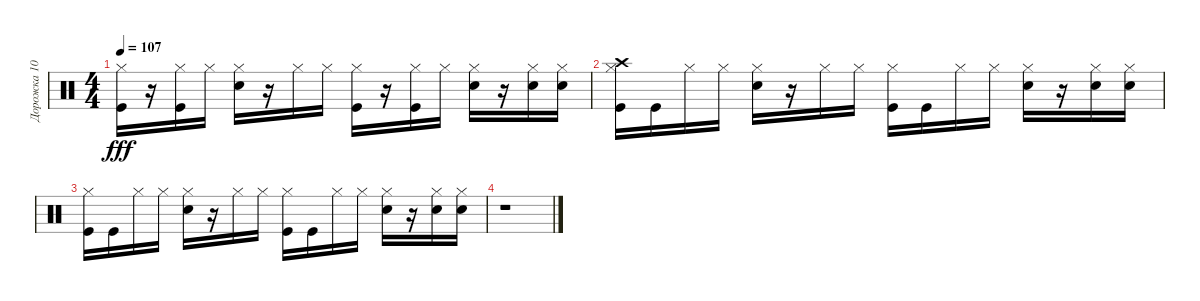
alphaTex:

\track ("Дорожка 10" "Дорожка 10") {instrument percussion}
\staff {score}
\articulation defaults
\ts (4 4)
\tempo 107
\clef neutral
\ks c
("Hi-Hat (closed)" "Kick (hit)").16{dy fff} r.16 ("Kick (hit)" "Hi-Hat (closed)").16 "Hi-Hat (closed)".16 ("Hi-Hat (closed)" "Electric Snare (hit)").16 r.16 "Hi-Hat (closed)".16 "Hi-Hat (closed)".16 ("Kick (hit)" "Hi-Hat (closed)").16 r.16 ("Hi-Hat (closed)" "Kick (hit)").16 "Hi-Hat (closed)".16 ("Hi-Hat (closed)" "Electric Snare (hit)").16 r.16 ("Electric Snare (hit)" "Hi-Hat (closed)").16 ("Hi-Hat (closed)" "Electric Snare (hit)").16 |
("Hi-Hat (closed)" "Kick (hit)" "Crash high (hit)").16 "Kick (hit)".16 "Hi-Hat (closed)".16 "Hi-Hat (closed)".16 ("Hi-Hat (closed)" "Electric Snare (hit)").16 r.16 "Hi-Hat (closed)".16 "Hi-Hat (closed)".16 ("Hi-Hat (closed)" "Kick (hit)").16 "Kick (hit)".16 "Hi-Hat (closed)".16 "Hi-Hat (closed)".16 ("Electric Snare (hit)" "Hi-Hat (closed)").16 r.16 ("Hi-Hat (closed)" "Electric Snare (hit)").16 ("Hi-Hat (closed)" "Electric Snare (hit)").16 |
("Kick (hit)" "Hi-Hat (closed)").16 "Kick (hit)".16 "Hi-Hat (closed)".16 "Hi-Hat (closed)".16 ("Electric Snare (hit)" "Hi-Hat (closed)").16 r.16 "Hi-Hat (closed)".16 "Hi-Hat (closed)".16 ("Kick (hit)" "Hi-Hat (closed)").16 "Kick (hit)".16 "Hi-Hat (closed)".16 "Hi-Hat (closed)".16 ("Electric Snare (hit)" "Hi-Hat (closed)").16 r.16 ("Hi-Hat (closed)" "Electric Snare (hit)").16 ("Hi-Hat (closed)" "Electric Snare (hit)").16 |
r.1
